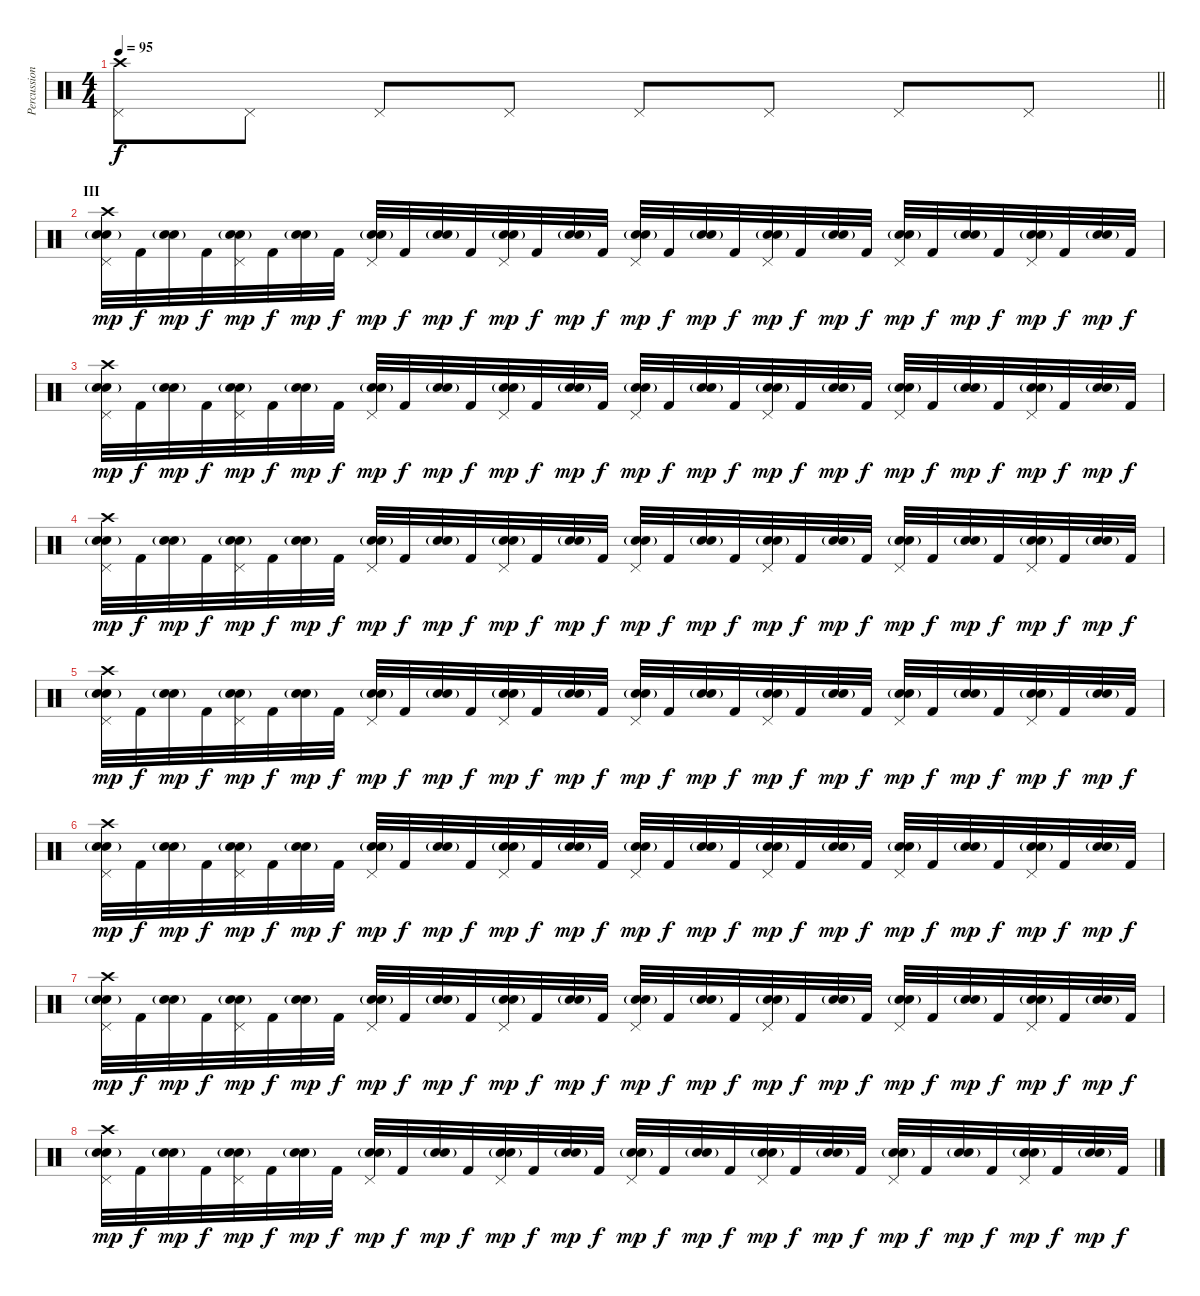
\track ("Percussion" "Percussion") {instrument percussion}
\staff {score}
\articulation defaults
\ts (4 4)
\tempo 95
\clef neutral
\barLineRight lightlight
\ks c
("Crash high (hit)" "Pedal Hi-Hat (hit)").8{dy f} "Pedal Hi-Hat (hit)".8 "Pedal Hi-Hat (hit)".8 "Pedal Hi-Hat (hit)".8 "Pedal Hi-Hat (hit)".8 "Pedal Hi-Hat (hit)".8 "Pedal Hi-Hat (hit)".8 "Pedal Hi-Hat (hit)".8 |
\section ("" "III")
("Crash high (hit)" "Electric Snare (hit)" "Snare (hit) 2"{g} "Pedal Hi-Hat (hit)").32{dy mp} "Kick (hit) 2".32{dy f} ("Electric Snare (hit)" "Snare (hit) 2"{g}).32{dy mp} "Kick (hit) 2".32{dy f} ("Electric Snare (hit)" "Snare (hit) 2"{g} "Pedal Hi-Hat (hit)").32{dy mp} "Kick (hit) 2".32{dy f} ("Electric Snare (hit)" "Snare (hit) 2"{g}).32{dy mp} "Kick (hit) 2".32{dy f} ("Electric Snare (hit)" "Snare (hit) 2"{g} "Pedal Hi-Hat (hit)").32{dy mp} "Kick (hit) 2".32{dy f} ("Electric Snare (hit)" "Snare (hit) 2"{g}).32{dy mp} "Kick (hit) 2".32{dy f} ("Electric Snare (hit)" "Snare (hit) 2"{g} "Pedal Hi-Hat (hit)").32{dy mp} "Kick (hit) 2".32{dy f} ("Electric Snare (hit)" "Snare (hit) 2"{g}).32{dy mp} "Kick (hit) 2".32{dy f} ("Electric Snare (hit)" "Snare (hit) 2"{g} "Pedal Hi-Hat (hit)").32{dy mp} "Kick (hit) 2".32{dy f} ("Electric Snare (hit)" "Snare (hit) 2"{g}).32{dy mp} "Kick (hit) 2".32{dy f} ("Electric Snare (hit)" "Snare (hit) 2"{g} "Pedal Hi-Hat (hit)").32{dy mp} "Kick (hit) 2".32{dy f} ("Electric Snare (hit)" "Snare (hit) 2"{g}).32{dy mp} "Kick (hit) 2".32{dy f} ("Electric Snare (hit)" "Snare (hit) 2"{g} "Pedal Hi-Hat (hit)").32{dy mp} "Kick (hit) 2".32{dy f} ("Electric Snare (hit)" "Snare (hit) 2"{g}).32{dy mp} "Kick (hit) 2".32{dy f} ("Electric Snare (hit)" "Snare (hit) 2"{g} "Pedal Hi-Hat (hit)").32{dy mp} "Kick (hit) 2".32{dy f} ("Electric Snare (hit)" "Snare (hit) 2"{g}).32{dy mp} "Kick (hit) 2".32{dy f} |
("Crash high (hit)" "Electric Snare (hit)" "Snare (hit) 2"{g} "Pedal Hi-Hat (hit)").32{dy mp} "Kick (hit) 2".32{dy f} ("Electric Snare (hit)" "Snare (hit) 2"{g}).32{dy mp} "Kick (hit) 2".32{dy f} ("Electric Snare (hit)" "Snare (hit) 2"{g} "Pedal Hi-Hat (hit)").32{dy mp} "Kick (hit) 2".32{dy f} ("Electric Snare (hit)" "Snare (hit) 2"{g}).32{dy mp} "Kick (hit) 2".32{dy f} ("Electric Snare (hit)" "Snare (hit) 2"{g} "Pedal Hi-Hat (hit)").32{dy mp} "Kick (hit) 2".32{dy f} ("Electric Snare (hit)" "Snare (hit) 2"{g}).32{dy mp} "Kick (hit) 2".32{dy f} ("Electric Snare (hit)" "Snare (hit) 2"{g} "Pedal Hi-Hat (hit)").32{dy mp} "Kick (hit) 2".32{dy f} ("Electric Snare (hit)" "Snare (hit) 2"{g}).32{dy mp} "Kick (hit) 2".32{dy f} ("Electric Snare (hit)" "Snare (hit) 2"{g} "Pedal Hi-Hat (hit)").32{dy mp} "Kick (hit) 2".32{dy f} ("Electric Snare (hit)" "Snare (hit) 2"{g}).32{dy mp} "Kick (hit) 2".32{dy f} ("Electric Snare (hit)" "Snare (hit) 2"{g} "Pedal Hi-Hat (hit)").32{dy mp} "Kick (hit) 2".32{dy f} ("Electric Snare (hit)" "Snare (hit) 2"{g}).32{dy mp} "Kick (hit) 2".32{dy f} ("Electric Snare (hit)" "Snare (hit) 2"{g} "Pedal Hi-Hat (hit)").32{dy mp} "Kick (hit) 2".32{dy f} ("Electric Snare (hit)" "Snare (hit) 2"{g}).32{dy mp} "Kick (hit) 2".32{dy f} ("Electric Snare (hit)" "Snare (hit) 2"{g} "Pedal Hi-Hat (hit)").32{dy mp} "Kick (hit) 2".32{dy f} ("Electric Snare (hit)" "Snare (hit) 2"{g}).32{dy mp} "Kick (hit) 2".32{dy f} |
("Crash high (hit)" "Electric Snare (hit)" "Snare (hit) 2"{g} "Pedal Hi-Hat (hit)").32{dy mp} "Kick (hit) 2".32{dy f} ("Electric Snare (hit)" "Snare (hit) 2"{g}).32{dy mp} "Kick (hit) 2".32{dy f} ("Electric Snare (hit)" "Snare (hit) 2"{g} "Pedal Hi-Hat (hit)").32{dy mp} "Kick (hit) 2".32{dy f} ("Electric Snare (hit)" "Snare (hit) 2"{g}).32{dy mp} "Kick (hit) 2".32{dy f} ("Electric Snare (hit)" "Snare (hit) 2"{g} "Pedal Hi-Hat (hit)").32{dy mp} "Kick (hit) 2".32{dy f} ("Electric Snare (hit)" "Snare (hit) 2"{g}).32{dy mp} "Kick (hit) 2".32{dy f} ("Electric Snare (hit)" "Snare (hit) 2"{g} "Pedal Hi-Hat (hit)").32{dy mp} "Kick (hit) 2".32{dy f} ("Electric Snare (hit)" "Snare (hit) 2"{g}).32{dy mp} "Kick (hit) 2".32{dy f} ("Electric Snare (hit)" "Snare (hit) 2"{g} "Pedal Hi-Hat (hit)").32{dy mp} "Kick (hit) 2".32{dy f} ("Electric Snare (hit)" "Snare (hit) 2"{g}).32{dy mp} "Kick (hit) 2".32{dy f} ("Electric Snare (hit)" "Snare (hit) 2"{g} "Pedal Hi-Hat (hit)").32{dy mp} "Kick (hit) 2".32{dy f} ("Electric Snare (hit)" "Snare (hit) 2"{g}).32{dy mp} "Kick (hit) 2".32{dy f} ("Electric Snare (hit)" "Snare (hit) 2"{g} "Pedal Hi-Hat (hit)").32{dy mp} "Kick (hit) 2".32{dy f} ("Electric Snare (hit)" "Snare (hit) 2"{g}).32{dy mp} "Kick (hit) 2".32{dy f} ("Electric Snare (hit)" "Snare (hit) 2"{g} "Pedal Hi-Hat (hit)").32{dy mp} "Kick (hit) 2".32{dy f} ("Electric Snare (hit)" "Snare (hit) 2"{g}).32{dy mp} "Kick (hit) 2".32{dy f} |
("Crash high (hit)" "Electric Snare (hit)" "Snare (hit) 2"{g} "Pedal Hi-Hat (hit)").32{dy mp} "Kick (hit) 2".32{dy f} ("Electric Snare (hit)" "Snare (hit) 2"{g}).32{dy mp} "Kick (hit) 2".32{dy f} ("Electric Snare (hit)" "Snare (hit) 2"{g} "Pedal Hi-Hat (hit)").32{dy mp} "Kick (hit) 2".32{dy f} ("Electric Snare (hit)" "Snare (hit) 2"{g}).32{dy mp} "Kick (hit) 2".32{dy f} ("Electric Snare (hit)" "Snare (hit) 2"{g} "Pedal Hi-Hat (hit)").32{dy mp} "Kick (hit) 2".32{dy f} ("Electric Snare (hit)" "Snare (hit) 2"{g}).32{dy mp} "Kick (hit) 2".32{dy f} ("Electric Snare (hit)" "Snare (hit) 2"{g} "Pedal Hi-Hat (hit)").32{dy mp} "Kick (hit) 2".32{dy f} ("Electric Snare (hit)" "Snare (hit) 2"{g}).32{dy mp} "Kick (hit) 2".32{dy f} ("Electric Snare (hit)" "Snare (hit) 2"{g} "Pedal Hi-Hat (hit)").32{dy mp} "Kick (hit) 2".32{dy f} ("Electric Snare (hit)" "Snare (hit) 2"{g}).32{dy mp} "Kick (hit) 2".32{dy f} ("Electric Snare (hit)" "Snare (hit) 2"{g} "Pedal Hi-Hat (hit)").32{dy mp} "Kick (hit) 2".32{dy f} ("Electric Snare (hit)" "Snare (hit) 2"{g}).32{dy mp} "Kick (hit) 2".32{dy f} ("Electric Snare (hit)" "Snare (hit) 2"{g} "Pedal Hi-Hat (hit)").32{dy mp} "Kick (hit) 2".32{dy f} ("Electric Snare (hit)" "Snare (hit) 2"{g}).32{dy mp} "Kick (hit) 2".32{dy f} ("Electric Snare (hit)" "Snare (hit) 2"{g} "Pedal Hi-Hat (hit)").32{dy mp} "Kick (hit) 2".32{dy f} ("Electric Snare (hit)" "Snare (hit) 2"{g}).32{dy mp} "Kick (hit) 2".32{dy f} |
("Crash high (hit)" "Electric Snare (hit)" "Snare (hit) 2"{g} "Pedal Hi-Hat (hit)").32{dy mp} "Kick (hit) 2".32{dy f} ("Electric Snare (hit)" "Snare (hit) 2"{g}).32{dy mp} "Kick (hit) 2".32{dy f} ("Electric Snare (hit)" "Snare (hit) 2"{g} "Pedal Hi-Hat (hit)").32{dy mp} "Kick (hit) 2".32{dy f} ("Electric Snare (hit)" "Snare (hit) 2"{g}).32{dy mp} "Kick (hit) 2".32{dy f} ("Electric Snare (hit)" "Snare (hit) 2"{g} "Pedal Hi-Hat (hit)").32{dy mp} "Kick (hit) 2".32{dy f} ("Electric Snare (hit)" "Snare (hit) 2"{g}).32{dy mp} "Kick (hit) 2".32{dy f} ("Electric Snare (hit)" "Snare (hit) 2"{g} "Pedal Hi-Hat (hit)").32{dy mp} "Kick (hit) 2".32{dy f} ("Electric Snare (hit)" "Snare (hit) 2"{g}).32{dy mp} "Kick (hit) 2".32{dy f} ("Electric Snare (hit)" "Snare (hit) 2"{g} "Pedal Hi-Hat (hit)").32{dy mp} "Kick (hit) 2".32{dy f} ("Electric Snare (hit)" "Snare (hit) 2"{g}).32{dy mp} "Kick (hit) 2".32{dy f} ("Electric Snare (hit)" "Snare (hit) 2"{g} "Pedal Hi-Hat (hit)").32{dy mp} "Kick (hit) 2".32{dy f} ("Electric Snare (hit)" "Snare (hit) 2"{g}).32{dy mp} "Kick (hit) 2".32{dy f} ("Electric Snare (hit)" "Snare (hit) 2"{g} "Pedal Hi-Hat (hit)").32{dy mp} "Kick (hit) 2".32{dy f} ("Electric Snare (hit)" "Snare (hit) 2"{g}).32{dy mp} "Kick (hit) 2".32{dy f} ("Electric Snare (hit)" "Snare (hit) 2"{g} "Pedal Hi-Hat (hit)").32{dy mp} "Kick (hit) 2".32{dy f} ("Electric Snare (hit)" "Snare (hit) 2"{g}).32{dy mp} "Kick (hit) 2".32{dy f} |
("Crash high (hit)" "Electric Snare (hit)" "Snare (hit) 2"{g} "Pedal Hi-Hat (hit)").32{dy mp} "Kick (hit) 2".32{dy f} ("Electric Snare (hit)" "Snare (hit) 2"{g}).32{dy mp} "Kick (hit) 2".32{dy f} ("Electric Snare (hit)" "Snare (hit) 2"{g} "Pedal Hi-Hat (hit)").32{dy mp} "Kick (hit) 2".32{dy f} ("Electric Snare (hit)" "Snare (hit) 2"{g}).32{dy mp} "Kick (hit) 2".32{dy f} ("Electric Snare (hit)" "Snare (hit) 2"{g} "Pedal Hi-Hat (hit)").32{dy mp} "Kick (hit) 2".32{dy f} ("Electric Snare (hit)" "Snare (hit) 2"{g}).32{dy mp} "Kick (hit) 2".32{dy f} ("Electric Snare (hit)" "Snare (hit) 2"{g} "Pedal Hi-Hat (hit)").32{dy mp} "Kick (hit) 2".32{dy f} ("Electric Snare (hit)" "Snare (hit) 2"{g}).32{dy mp} "Kick (hit) 2".32{dy f} ("Electric Snare (hit)" "Snare (hit) 2"{g} "Pedal Hi-Hat (hit)").32{dy mp} "Kick (hit) 2".32{dy f} ("Electric Snare (hit)" "Snare (hit) 2"{g}).32{dy mp} "Kick (hit) 2".32{dy f} ("Electric Snare (hit)" "Snare (hit) 2"{g} "Pedal Hi-Hat (hit)").32{dy mp} "Kick (hit) 2".32{dy f} ("Electric Snare (hit)" "Snare (hit) 2"{g}).32{dy mp} "Kick (hit) 2".32{dy f} ("Electric Snare (hit)" "Snare (hit) 2"{g} "Pedal Hi-Hat (hit)").32{dy mp} "Kick (hit) 2".32{dy f} ("Electric Snare (hit)" "Snare (hit) 2"{g}).32{dy mp} "Kick (hit) 2".32{dy f} ("Electric Snare (hit)" "Snare (hit) 2"{g} "Pedal Hi-Hat (hit)").32{dy mp} "Kick (hit) 2".32{dy f} ("Electric Snare (hit)" "Snare (hit) 2"{g}).32{dy mp} "Kick (hit) 2".32{dy f} |
("Crash high (hit)" "Electric Snare (hit)" "Snare (hit) 2"{g} "Pedal Hi-Hat (hit)").32{dy mp} "Kick (hit) 2".32{dy f} ("Electric Snare (hit)" "Snare (hit) 2"{g}).32{dy mp} "Kick (hit) 2".32{dy f} ("Electric Snare (hit)" "Snare (hit) 2"{g} "Pedal Hi-Hat (hit)").32{dy mp} "Kick (hit) 2".32{dy f} ("Electric Snare (hit)" "Snare (hit) 2"{g}).32{dy mp} "Kick (hit) 2".32{dy f} ("Electric Snare (hit)" "Snare (hit) 2"{g} "Pedal Hi-Hat (hit)").32{dy mp} "Kick (hit) 2".32{dy f} ("Electric Snare (hit)" "Snare (hit) 2"{g}).32{dy mp} "Kick (hit) 2".32{dy f} ("Electric Snare (hit)" "Snare (hit) 2"{g} "Pedal Hi-Hat (hit)").32{dy mp} "Kick (hit) 2".32{dy f} ("Electric Snare (hit)" "Snare (hit) 2"{g}).32{dy mp} "Kick (hit) 2".32{dy f} ("Electric Snare (hit)" "Snare (hit) 2"{g} "Pedal Hi-Hat (hit)").32{dy mp} "Kick (hit) 2".32{dy f} ("Electric Snare (hit)" "Snare (hit) 2"{g}).32{dy mp} "Kick (hit) 2".32{dy f} ("Electric Snare (hit)" "Snare (hit) 2"{g} "Pedal Hi-Hat (hit)").32{dy mp} "Kick (hit) 2".32{dy f} ("Electric Snare (hit)" "Snare (hit) 2"{g}).32{dy mp} "Kick (hit) 2".32{dy f} ("Electric Snare (hit)" "Snare (hit) 2"{g} "Pedal Hi-Hat (hit)").32{dy mp} "Kick (hit) 2".32{dy f} ("Electric Snare (hit)" "Snare (hit) 2"{g}).32{dy mp} "Kick (hit) 2".32{dy f} ("Electric Snare (hit)" "Snare (hit) 2"{g} "Pedal Hi-Hat (hit)").32{dy mp} "Kick (hit) 2".32{dy f} ("Electric Snare (hit)" "Snare (hit) 2"{g}).32{dy mp} "Kick (hit) 2".32{dy f}
